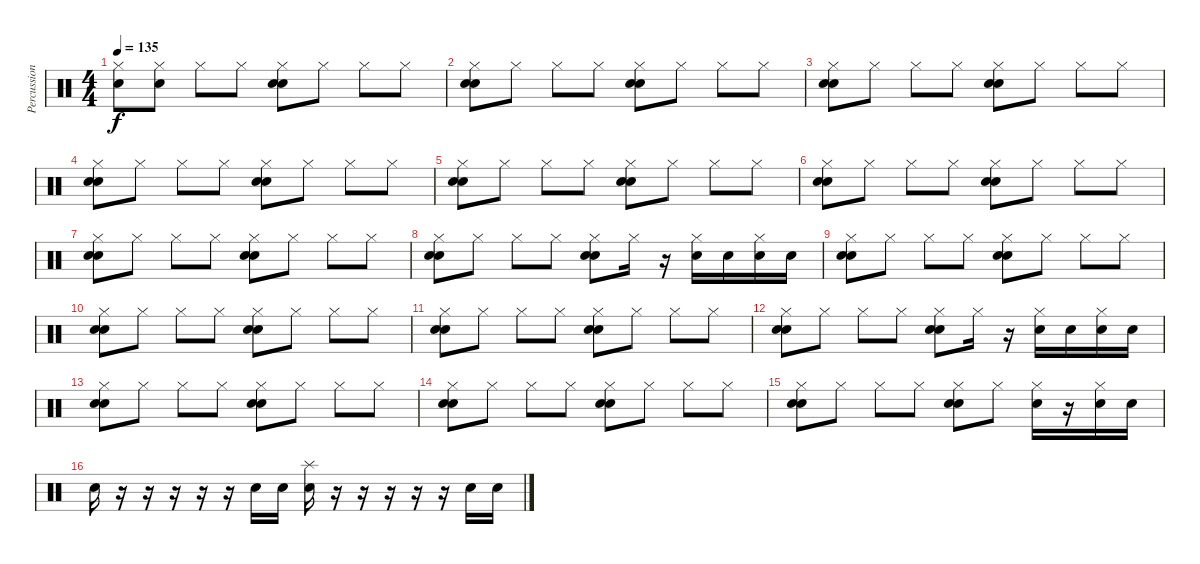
\track ("Percussion" "Percussion") {instrument percussion}
\staff {score}
\articulation defaults
\ts (4 4)
\tempo 135
\clef neutral
\ks c
("Hi-Hat (closed)" "Snare (hit) 2").8{dy f} ("Hi-Hat (closed)" "Snare (hit) 2").8 "Hi-Hat (closed)".8 "Hi-Hat (closed)".8 ("Hi-Hat (closed)" "Snare (hit) 2" "Snare (hit) 2").8 "Hi-Hat (closed)".8 "Hi-Hat (closed)".8 "Hi-Hat (closed)".8 |
("Hi-Hat (closed)" "Snare (hit) 2" "Snare (hit) 2").8 "Hi-Hat (closed)".8 "Hi-Hat (closed)".8 "Hi-Hat (closed)".8 ("Hi-Hat (closed)" "Snare (hit) 2" "Snare (hit) 2").8 "Hi-Hat (closed)".8 "Hi-Hat (closed)".8 "Hi-Hat (closed)".8 |
("Hi-Hat (closed)" "Snare (hit) 2" "Snare (hit) 2").8 "Hi-Hat (closed)".8 "Hi-Hat (closed)".8 "Hi-Hat (closed)".8 ("Hi-Hat (closed)" "Snare (hit) 2" "Snare (hit) 2").8 "Hi-Hat (closed)".8 "Hi-Hat (closed)".8 "Hi-Hat (closed)".8 |
("Hi-Hat (closed)" "Snare (hit) 2" "Snare (hit) 2").8 "Hi-Hat (closed)".8 "Hi-Hat (closed)".8 "Hi-Hat (closed)".8 ("Hi-Hat (closed)" "Snare (hit) 2" "Snare (hit) 2").8 "Hi-Hat (closed)".8 "Hi-Hat (closed)".8 "Hi-Hat (closed)".8 |
("Hi-Hat (closed)" "Snare (hit) 2" "Snare (hit) 2").8 "Hi-Hat (closed)".8 "Hi-Hat (closed)".8 "Hi-Hat (closed)".8 ("Hi-Hat (closed)" "Snare (hit) 2" "Snare (hit) 2").8 "Hi-Hat (closed)".8 "Hi-Hat (closed)".8 "Hi-Hat (closed)".8 |
("Hi-Hat (closed)" "Snare (hit) 2" "Snare (hit) 2").8 "Hi-Hat (closed)".8 "Hi-Hat (closed)".8 "Hi-Hat (closed)".8 ("Hi-Hat (closed)" "Snare (hit) 2" "Snare (hit) 2").8 "Hi-Hat (closed)".8 "Hi-Hat (closed)".8 "Hi-Hat (closed)".8 |
("Hi-Hat (closed)" "Snare (hit) 2" "Snare (hit) 2").8 "Hi-Hat (closed)".8 "Hi-Hat (closed)".8 "Hi-Hat (closed)".8 ("Hi-Hat (closed)" "Snare (hit) 2" "Snare (hit) 2").8 "Hi-Hat (closed)".8 "Hi-Hat (closed)".8 "Hi-Hat (closed)".8 |
("Hi-Hat (closed)" "Snare (hit) 2" "Snare (hit) 2").8 "Hi-Hat (closed)".8 "Hi-Hat (closed)".8 "Hi-Hat (closed)".8 ("Hi-Hat (closed)" "Snare (hit) 2" "Snare (hit) 2").8 "Hi-Hat (closed)".16 r.16 ("Hi-Hat (closed)" "Snare (hit) 2").16 "Snare (hit) 2".16 ("Hi-Hat (closed)" "Snare (hit) 2").16 "Snare (hit) 2".16 |
("Hi-Hat (closed)" "Snare (hit) 2" "Snare (hit) 2").8 "Hi-Hat (closed)".8 "Hi-Hat (closed)".8 "Hi-Hat (closed)".8 ("Hi-Hat (closed)" "Snare (hit) 2" "Snare (hit) 2").8 "Hi-Hat (closed)".8 "Hi-Hat (closed)".8 "Hi-Hat (closed)".8 |
("Hi-Hat (closed)" "Snare (hit) 2" "Snare (hit) 2").8 "Hi-Hat (closed)".8 "Hi-Hat (closed)".8 "Hi-Hat (closed)".8 ("Hi-Hat (closed)" "Snare (hit) 2" "Snare (hit) 2").8 "Hi-Hat (closed)".8 "Hi-Hat (closed)".8 "Hi-Hat (closed)".8 |
("Hi-Hat (closed)" "Snare (hit) 2" "Snare (hit) 2").8 "Hi-Hat (closed)".8 "Hi-Hat (closed)".8 "Hi-Hat (closed)".8 ("Hi-Hat (closed)" "Snare (hit) 2" "Snare (hit) 2").8 "Hi-Hat (closed)".8 "Hi-Hat (closed)".8 "Hi-Hat (closed)".8 |
("Hi-Hat (closed)" "Snare (hit) 2" "Snare (hit) 2").8 "Hi-Hat (closed)".8 "Hi-Hat (closed)".8 "Hi-Hat (closed)".8 ("Hi-Hat (closed)" "Snare (hit) 2" "Snare (hit) 2").8 "Hi-Hat (closed)".16 r.16 ("Hi-Hat (closed)" "Snare (hit) 2").16 "Snare (hit) 2".16 ("Hi-Hat (closed)" "Snare (hit) 2").16 "Snare (hit) 2".16 |
("Hi-Hat (closed)" "Snare (hit) 2" "Snare (hit) 2").8 "Hi-Hat (closed)".8 "Hi-Hat (closed)".8 "Hi-Hat (closed)".8 ("Hi-Hat (closed)" "Snare (hit) 2" "Snare (hit) 2").8 "Hi-Hat (closed)".8 "Hi-Hat (closed)".8 "Hi-Hat (closed)".8 |
("Hi-Hat (closed)" "Snare (hit) 2" "Snare (hit) 2").8 "Hi-Hat (closed)".8 "Hi-Hat (closed)".8 "Hi-Hat (closed)".8 ("Hi-Hat (closed)" "Snare (hit) 2" "Snare (hit) 2").8 "Hi-Hat (closed)".8 "Hi-Hat (closed)".8 "Hi-Hat (closed)".8 |
("Hi-Hat (closed)" "Snare (hit) 2" "Snare (hit) 2").8 "Hi-Hat (closed)".8 "Hi-Hat (closed)".8 "Hi-Hat (closed)".8 ("Hi-Hat (closed)" "Snare (hit) 2" "Snare (hit) 2").8 "Hi-Hat (closed)".8 ("Hi-Hat (closed)" "Snare (hit) 2").16 r.16 ("Hi-Hat (closed)" "Snare (hit) 2").16 "Snare (hit) 2".16 |
"Snare (hit) 2".16 r.16 r.16 r.16 r.16 r.16 "Snare (hit) 2".16 "Snare (hit) 2".16 ("Snare (hit) 2" "Splash (hit)").16 r.16 r.16 r.16 r.16 r.16 "Snare (hit) 2".16 "Snare (hit) 2".16
